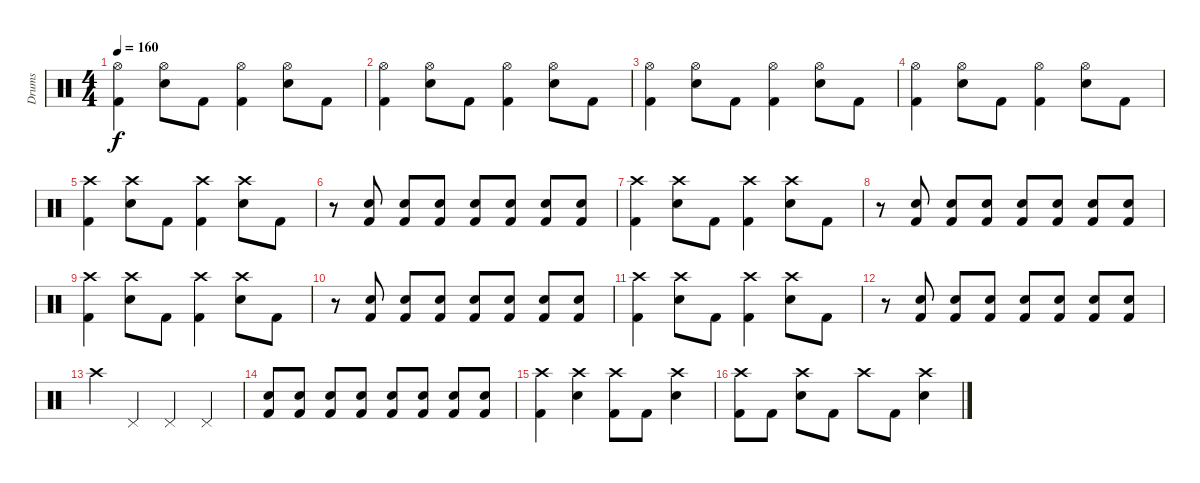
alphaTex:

\track ("Drums" "Drums") {instrument percussion}
\staff {score}
\articulation defaults
\ts (4 4)
\tempo 160
\clef neutral
\ks c
("Hi-Hat (open)" "Kick (hit) 2").4{dy f} ("Hi-Hat (open)" "Electric Snare (hit)").8 "Kick (hit) 2".8 ("Hi-Hat (open)" "Kick (hit) 2").4 ("Hi-Hat (open)" "Electric Snare (hit)").8 "Kick (hit) 2".8 |
("Hi-Hat (open)" "Kick (hit) 2").4 ("Hi-Hat (open)" "Electric Snare (hit)").8 "Kick (hit) 2".8 ("Hi-Hat (open)" "Kick (hit) 2").4 ("Hi-Hat (open)" "Electric Snare (hit)").8 "Kick (hit) 2".8 |
("Hi-Hat (open)" "Kick (hit) 2").4 ("Hi-Hat (open)" "Electric Snare (hit)").8 "Kick (hit) 2".8 ("Hi-Hat (open)" "Kick (hit) 2").4 ("Hi-Hat (open)" "Electric Snare (hit)").8 "Kick (hit) 2".8 |
("Hi-Hat (open)" "Kick (hit) 2").4 ("Hi-Hat (open)" "Electric Snare (hit)").8 "Kick (hit) 2".8 ("Hi-Hat (open)" "Kick (hit) 2").4 ("Hi-Hat (open)" "Electric Snare (hit)").8 "Kick (hit) 2".8 |
("Crash high (hit)" "Kick (hit) 2").4 ("Crash high (hit)" "Electric Snare (hit)").8 "Kick (hit) 2".8 ("Crash high (hit)" "Kick (hit) 2").4 ("Crash high (hit)" "Electric Snare (hit)").8 "Kick (hit) 2".8 |
r.8 ("Electric Snare (hit)" "Kick (hit) 2").8 ("Electric Snare (hit)" "Kick (hit) 2").8 ("Electric Snare (hit)" "Kick (hit) 2").8 ("Electric Snare (hit)" "Kick (hit) 2").8 ("Electric Snare (hit)" "Kick (hit) 2").8 ("Electric Snare (hit)" "Kick (hit) 2").8 ("Electric Snare (hit)" "Kick (hit) 2").8 |
("Crash high (hit)" "Kick (hit) 2").4 ("Crash high (hit)" "Electric Snare (hit)").8 "Kick (hit) 2".8 ("Crash high (hit)" "Kick (hit) 2").4 ("Crash high (hit)" "Electric Snare (hit)").8 "Kick (hit) 2".8 |
r.8 ("Electric Snare (hit)" "Kick (hit) 2").8 ("Electric Snare (hit)" "Kick (hit) 2").8 ("Electric Snare (hit)" "Kick (hit) 2").8 ("Electric Snare (hit)" "Kick (hit) 2").8 ("Electric Snare (hit)" "Kick (hit) 2").8 ("Electric Snare (hit)" "Kick (hit) 2").8 ("Electric Snare (hit)" "Kick (hit) 2").8 |
("Crash high (hit)" "Kick (hit) 2").4 ("Crash high (hit)" "Electric Snare (hit)").8 "Kick (hit) 2".8 ("Crash high (hit)" "Kick (hit) 2").4 ("Crash high (hit)" "Electric Snare (hit)").8 "Kick (hit) 2".8 |
r.8 ("Electric Snare (hit)" "Kick (hit) 2").8 ("Electric Snare (hit)" "Kick (hit) 2").8 ("Electric Snare (hit)" "Kick (hit) 2").8 ("Electric Snare (hit)" "Kick (hit) 2").8 ("Electric Snare (hit)" "Kick (hit) 2").8 ("Electric Snare (hit)" "Kick (hit) 2").8 ("Electric Snare (hit)" "Kick (hit) 2").8 |
("Crash high (hit)" "Kick (hit) 2").4 ("Crash high (hit)" "Electric Snare (hit)").8 "Kick (hit) 2".8 ("Crash high (hit)" "Kick (hit) 2").4 ("Crash high (hit)" "Electric Snare (hit)").8 "Kick (hit) 2".8 |
r.8 ("Electric Snare (hit)" "Kick (hit) 2").8 ("Electric Snare (hit)" "Kick (hit) 2").8 ("Electric Snare (hit)" "Kick (hit) 2").8 ("Electric Snare (hit)" "Kick (hit) 2").8 ("Electric Snare (hit)" "Kick (hit) 2").8 ("Electric Snare (hit)" "Kick (hit) 2").8 ("Electric Snare (hit)" "Kick (hit) 2").8 |
"Crash high (hit)".4 "Pedal Hi-Hat (hit)".4 "Pedal Hi-Hat (hit)".4 "Pedal Hi-Hat (hit)".4 |
("Electric Snare (hit)" "Kick (hit) 2").8 ("Electric Snare (hit)" "Kick (hit) 2").8 ("Electric Snare (hit)" "Kick (hit) 2").8 ("Electric Snare (hit)" "Kick (hit) 2").8 ("Electric Snare (hit)" "Kick (hit) 2").8 ("Electric Snare (hit)" "Kick (hit) 2").8 ("Electric Snare (hit)" "Kick (hit) 2").8 ("Electric Snare (hit)" "Kick (hit) 2").8 |
("Crash high (hit)" "Kick (hit) 2").4 ("Crash high (hit)" "Electric Snare (hit)").4 ("Crash high (hit)" "Kick (hit) 2").8 "Kick (hit) 2".8 ("Crash high (hit)" "Electric Snare (hit)").4 |
("Crash high (hit)" "Kick (hit) 2").8 "Kick (hit) 2".8 ("Crash high (hit)" "Electric Snare (hit)").8 "Kick (hit) 2".8 "Crash high (hit)".8 "Kick (hit) 2".8 ("Crash high (hit)" "Electric Snare (hit)").4
